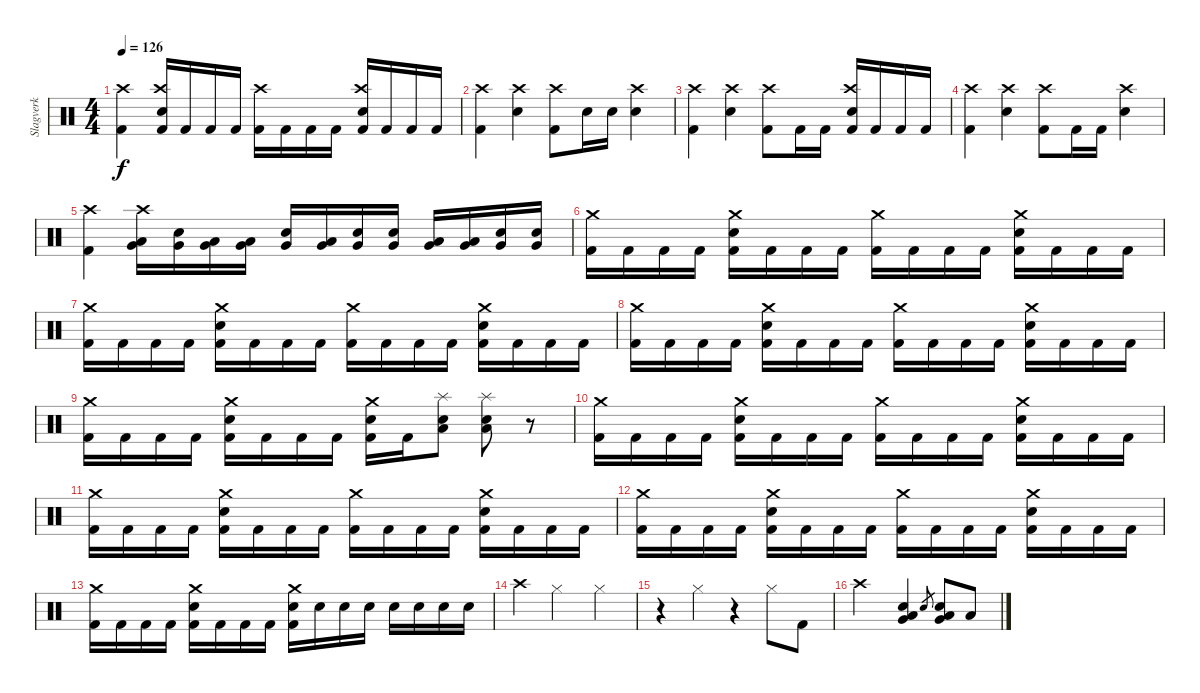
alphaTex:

\track ("Slagverk" "Slagverk") {instrument percussion}
\staff {score}
\articulation defaults
\ts (4 4)
\tempo 126
\clef neutral
\ks c
("Kick (hit) 2" "Crash high (hit)").4{dy f} ("Crash high (hit)" "Kick (hit) 2" "Electric Snare (hit)").16 "Kick (hit) 2".16 "Kick (hit) 2".16 "Kick (hit) 2".16 ("Crash high (hit)" "Kick (hit) 2").16 "Kick (hit) 2".16 "Kick (hit) 2".16 "Kick (hit) 2".16 ("Crash high (hit)" "Kick (hit) 2" "Electric Snare (hit)").16 "Kick (hit) 2".16 "Kick (hit) 2".16 "Kick (hit) 2".16 |
("Kick (hit) 2" "Crash high (hit)").4 ("Crash high (hit)" "Electric Snare (hit)").4 ("Crash high (hit)" "Kick (hit) 2").8 "Electric Snare (hit)".16 "Electric Snare (hit)".16 ("Crash high (hit)" "Electric Snare (hit)").4 |
("Kick (hit) 2" "Crash high (hit)").4 ("Crash high (hit)" "Electric Snare (hit)").4 ("Crash high (hit)" "Kick (hit) 2").8 "Kick (hit) 2".16 "Kick (hit) 2".16 ("Kick (hit) 2" "Crash high (hit)" "Electric Snare (hit)").16 "Kick (hit) 2".16 "Kick (hit) 2".16 "Kick (hit) 2".16 |
("Kick (hit) 2" "Crash high (hit)").4 ("Crash high (hit)" "Electric Snare (hit)").4 ("Crash high (hit)" "Kick (hit) 2").8 "Kick (hit) 2".16 "Kick (hit) 2".16 ("Crash high (hit)" "Electric Snare (hit)").4 |
("Kick (hit) 2" "Crash high (hit)").4 ("Crash high (hit)" "Low Floor Tom (hit)" "Very Low Tom (hit)").16 ("Electric Snare (hit)" "Very Low Tom (hit)").16 ("Low Floor Tom (hit)" "Very Low Tom (hit)").16 ("Low Floor Tom (hit)" "Very Low Tom (hit)").16 ("Electric Snare (hit)" "Very Low Tom (hit)").16 ("Low Floor Tom (hit)" "Very Low Tom (hit)").16 ("Electric Snare (hit)" "Very Low Tom (hit)").16 ("Electric Snare (hit)" "Very Low Tom (hit)").16 ("Low Floor Tom (hit)" "Very Low Tom (hit)").16 ("Low Floor Tom (hit)" "Very Low Tom (hit)").16 ("Electric Snare (hit)" "Very Low Tom (hit)").16 ("Electric Snare (hit)" "Very Low Tom (hit)").16 |
("Crash medium (hit)" "Kick (hit) 2").16 "Kick (hit) 2".16 "Kick (hit) 2".16 "Kick (hit) 2".16 ("Electric Snare (hit)" "Kick (hit) 2" "Crash medium (hit)").16 "Kick (hit) 2".16 "Kick (hit) 2".16 "Kick (hit) 2".16 ("Crash medium (hit)" "Kick (hit) 2").16 "Kick (hit) 2".16 "Kick (hit) 2".16 "Kick (hit) 2".16 ("Electric Snare (hit)" "Kick (hit) 2" "Crash medium (hit)").16 "Kick (hit) 2".16 "Kick (hit) 2".16 "Kick (hit) 2".16 |
("Crash medium (hit)" "Kick (hit) 2").16 "Kick (hit) 2".16 "Kick (hit) 2".16 "Kick (hit) 2".16 ("Electric Snare (hit)" "Kick (hit) 2" "Crash medium (hit)").16 "Kick (hit) 2".16 "Kick (hit) 2".16 "Kick (hit) 2".16 ("Crash medium (hit)" "Kick (hit) 2").16 "Kick (hit) 2".16 "Kick (hit) 2".16 "Kick (hit) 2".16 ("Electric Snare (hit)" "Kick (hit) 2" "Crash medium (hit)").16 "Kick (hit) 2".16 "Kick (hit) 2".16 "Kick (hit) 2".16 |
("Crash medium (hit)" "Kick (hit) 2").16 "Kick (hit) 2".16 "Kick (hit) 2".16 "Kick (hit) 2".16 ("Electric Snare (hit)" "Kick (hit) 2" "Crash medium (hit)").16 "Kick (hit) 2".16 "Kick (hit) 2".16 "Kick (hit) 2".16 ("Crash medium (hit)" "Kick (hit) 2").16 "Kick (hit) 2".16 "Kick (hit) 2".16 "Kick (hit) 2".16 ("Electric Snare (hit)" "Kick (hit) 2" "Crash medium (hit)").16 "Kick (hit) 2".16 "Kick (hit) 2".16 "Kick (hit) 2".16 |
("Crash medium (hit)" "Kick (hit) 2").16 "Kick (hit) 2".16 "Kick (hit) 2".16 "Kick (hit) 2".16 ("Electric Snare (hit)" "Kick (hit) 2" "Crash medium (hit)").16 "Kick (hit) 2".16 "Kick (hit) 2".16 "Kick (hit) 2".16 ("Electric Snare (hit)" "Kick (hit) 2" "Crash medium (hit)").16 "Kick (hit) 2".16 ("Electric Snare (hit)" "Low Floor Tom (hit)" "Splash (hit)").8 ("Electric Snare (hit)" "Low Floor Tom (hit)" "Splash (hit)").8 r.8 |
("Crash medium (hit)" "Kick (hit) 2").16 "Kick (hit) 2".16 "Kick (hit) 2".16 "Kick (hit) 2".16 ("Electric Snare (hit)" "Kick (hit) 2" "Crash medium (hit)").16 "Kick (hit) 2".16 "Kick (hit) 2".16 "Kick (hit) 2".16 ("Crash medium (hit)" "Kick (hit) 2").16 "Kick (hit) 2".16 "Kick (hit) 2".16 "Kick (hit) 2".16 ("Electric Snare (hit)" "Kick (hit) 2" "Crash medium (hit)").16 "Kick (hit) 2".16 "Kick (hit) 2".16 "Kick (hit) 2".16 |
("Crash medium (hit)" "Kick (hit) 2").16 "Kick (hit) 2".16 "Kick (hit) 2".16 "Kick (hit) 2".16 ("Electric Snare (hit)" "Kick (hit) 2" "Crash medium (hit)").16 "Kick (hit) 2".16 "Kick (hit) 2".16 "Kick (hit) 2".16 ("Crash medium (hit)" "Kick (hit) 2").16 "Kick (hit) 2".16 "Kick (hit) 2".16 "Kick (hit) 2".16 ("Electric Snare (hit)" "Kick (hit) 2" "Crash medium (hit)").16 "Kick (hit) 2".16 "Kick (hit) 2".16 "Kick (hit) 2".16 |
("Crash medium (hit)" "Kick (hit) 2").16 "Kick (hit) 2".16 "Kick (hit) 2".16 "Kick (hit) 2".16 ("Electric Snare (hit)" "Kick (hit) 2" "Crash medium (hit)").16 "Kick (hit) 2".16 "Kick (hit) 2".16 "Kick (hit) 2".16 ("Crash medium (hit)" "Kick (hit) 2").16 "Kick (hit) 2".16 "Kick (hit) 2".16 "Kick (hit) 2".16 ("Electric Snare (hit)" "Kick (hit) 2" "Crash medium (hit)").16 "Kick (hit) 2".16 "Kick (hit) 2".16 "Kick (hit) 2".16 |
("Crash medium (hit)" "Kick (hit) 2").16 "Kick (hit) 2".16 "Kick (hit) 2".16 "Kick (hit) 2".16 ("Electric Snare (hit)" "Kick (hit) 2" "Crash medium (hit)").16 "Kick (hit) 2".16 "Kick (hit) 2".16 "Kick (hit) 2".16 ("Electric Snare (hit)" "Kick (hit) 2" "Crash medium (hit)").16 "Electric Snare (hit)".16 "Electric Snare (hit)".16 "Electric Snare (hit)".16 "Electric Snare (hit)".16 "Electric Snare (hit)".16 "Electric Snare (hit)".16 "Electric Snare (hit)".16 |
"Crash high (hit)".4 "Hi-Hat (closed)".2 "Hi-Hat (closed)".4 |
r.4 "Hi-Hat (closed)".4 r.4 "Hi-Hat (closed)".8 "Kick (hit) 2".8 |
"Crash high (hit)".2 ("Electric Snare (hit)" "Low Floor Tom (hit)" "Very Low Tom (hit)").4 "Electric Snare (hit)".8{gr} ("Low Floor Tom (hit)" "Electric Snare (hit)" "Very Low Tom (hit)").8 "Low Floor Tom (hit)".8
